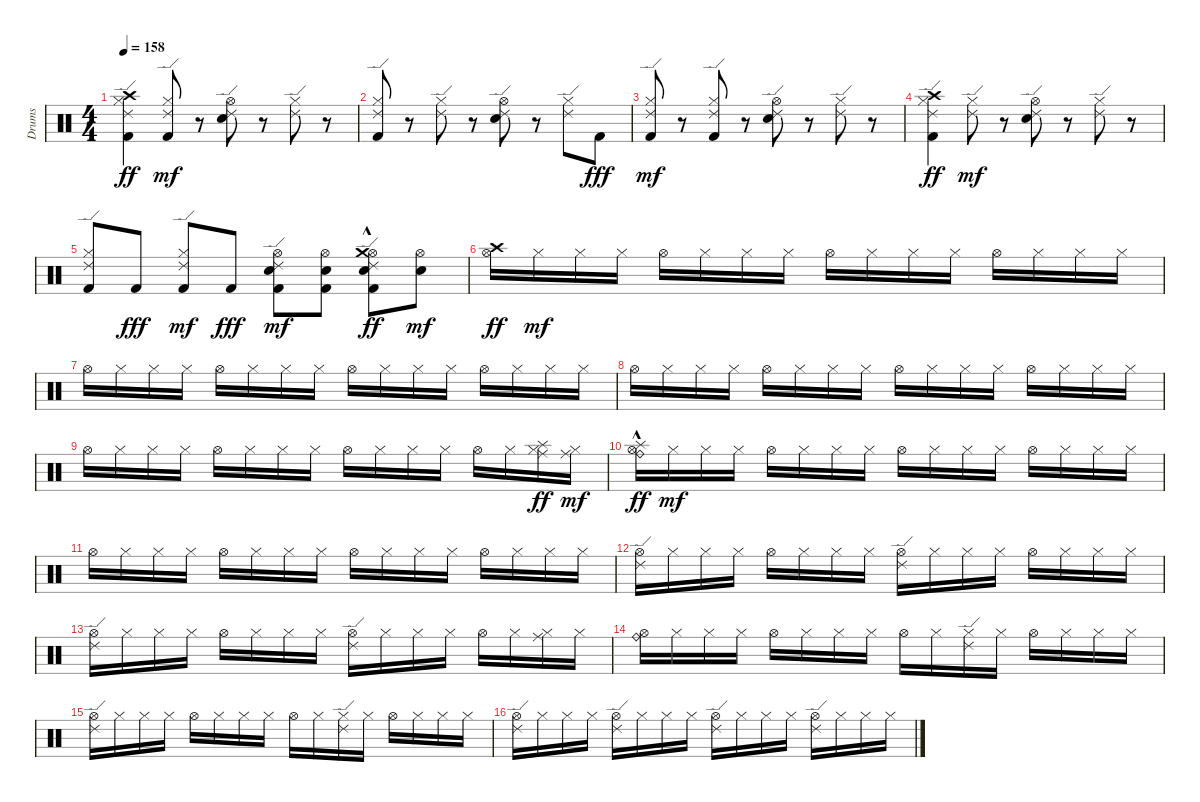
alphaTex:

\track ("Drums" "Drums") {instrument percussion}
\staff {score}
\articulation defaults
\ts (4 4)
\tempo 158
\clef neutral
\ks c
("Kick (hit) 2" "Hi-Hat (closed)" "Ride (edge) 2" "Crash high (hit)").4{dy ff} ("Kick (hit) 2" "Hi-Hat (closed)" "Ride (edge) 2").8{dy mf} r.8 ("Snare (hit) 2" "Hi-Hat (open)" "Ride (edge) 2").8 r.8 ("Hi-Hat (closed)" "Ride (edge) 2").8 r.8 |
("Kick (hit) 2" "Hi-Hat (closed)" "Ride (edge) 2").8 r.8 ("Hi-Hat (closed)" "Ride (edge) 2").8 r.8 ("Snare (hit) 2" "Hi-Hat (open)" "Ride (edge) 2").8 r.8 ("Hi-Hat (closed)" "Ride (edge) 2").8 "Kick (hit) 2".8{dy fff} |
("Kick (hit) 2" "Hi-Hat (closed)" "Ride (edge) 2").8{dy mf} r.8 ("Kick (hit) 2" "Hi-Hat (closed)" "Ride (edge) 2").8 r.8 ("Snare (hit) 2" "Hi-Hat (open)" "Ride (edge) 2").8 r.8 ("Hi-Hat (closed)" "Ride (edge) 2").8 r.8 |
("Kick (hit) 2" "Hi-Hat (closed)" "Ride (edge) 2" "Crash high (hit)").4{dy ff} ("Hi-Hat (closed)" "Ride (edge) 2").8{dy mf} r.8 ("Snare (hit) 2" "Hi-Hat (open)" "Ride (edge) 2").8 r.8 ("Hi-Hat (closed)" "Ride (edge) 2").8 r.8 |
("Kick (hit) 2" "Hi-Hat (closed)" "Ride (edge) 2").8 "Kick (hit) 2".8{dy fff} ("Kick (hit) 2" "Hi-Hat (closed)" "Ride (edge) 2").8{dy mf} "Kick (hit) 2".8{dy fff} ("Kick (hit) 2" "Snare (hit) 2" "Hi-Hat (open)" "Ride (edge) 2").8{dy mf} ("Kick (hit) 2" "Snare (hit) 2" "Hi-Hat (open)").8 ("Kick (hit) 2" "Snare (hit) 2" "Hi-Hat (open)" "Ride (edge) 2" "Crash medium (hit)"{hac}).8{dy ff} ("Snare (hit) 2" "Hi-Hat (open)").8{dy mf} |
("Hi-Hat (open)" "Crash high (hit)").16{dy ff} "Hi-Hat (closed)".16{dy mf} "Hi-Hat (closed)".16 "Hi-Hat (closed)".16 "Hi-Hat (open)".16 "Hi-Hat (closed)".16 "Hi-Hat (closed)".16 "Hi-Hat (closed)".16 "Hi-Hat (open)".16 "Hi-Hat (closed)".16 "Hi-Hat (closed)".16 "Hi-Hat (closed)".16 "Hi-Hat (open)".16 "Hi-Hat (closed)".16 "Hi-Hat (closed)".16 "Hi-Hat (closed)".16 |
"Hi-Hat (open)".16 "Hi-Hat (closed)".16 "Hi-Hat (closed)".16 "Hi-Hat (closed)".16 "Hi-Hat (open)".16 "Hi-Hat (closed)".16 "Hi-Hat (closed)".16 "Hi-Hat (closed)".16 "Hi-Hat (open)".16 "Hi-Hat (closed)".16 "Hi-Hat (closed)".16 "Hi-Hat (closed)".16 "Hi-Hat (open)".16 "Hi-Hat (closed)".16 "Hi-Hat (closed)".16 "Hi-Hat (closed)".16 |
"Hi-Hat (open)".16 "Hi-Hat (closed)".16 "Hi-Hat (closed)".16 "Hi-Hat (closed)".16 "Hi-Hat (open)".16 "Hi-Hat (closed)".16 "Hi-Hat (closed)".16 "Hi-Hat (closed)".16 "Hi-Hat (open)".16 "Hi-Hat (closed)".16 "Hi-Hat (closed)".16 "Hi-Hat (closed)".16 "Hi-Hat (open)".16 "Hi-Hat (closed)".16 "Hi-Hat (closed)".16 "Hi-Hat (closed)".16 |
"Hi-Hat (open)".16 "Hi-Hat (closed)".16 "Hi-Hat (closed)".16 "Hi-Hat (closed)".16 "Hi-Hat (open)".16 "Hi-Hat (closed)".16 "Hi-Hat (closed)".16 "Hi-Hat (closed)".16 "Hi-Hat (open)".16 "Hi-Hat (closed)".16 "Hi-Hat (closed)".16 "Hi-Hat (closed)".16 "Hi-Hat (open)".16 "Hi-Hat (closed)".16 ("Hi-Hat (closed)" "Ride (middle)" "Splash (hit)").16{dy ff} ("Hi-Hat (closed)" "Ride (middle)").16{dy mf} |
("Hi-Hat (open)" "Ride (bell)" "Splash (hit)"{hac}).16{dy ff} "Hi-Hat (closed)".16{dy mf} "Hi-Hat (closed)".16 "Hi-Hat (closed)".16 "Hi-Hat (open)".16 "Hi-Hat (closed)".16 "Hi-Hat (closed)".16 "Hi-Hat (closed)".16 "Hi-Hat (open)".16 "Hi-Hat (closed)".16 "Hi-Hat (closed)".16 "Hi-Hat (closed)".16 "Hi-Hat (open)".16 "Hi-Hat (closed)".16 "Hi-Hat (closed)".16 "Hi-Hat (closed)".16 |
"Hi-Hat (open)".16 "Hi-Hat (closed)".16 "Hi-Hat (closed)".16 "Hi-Hat (closed)".16 "Hi-Hat (open)".16 "Hi-Hat (closed)".16 "Hi-Hat (closed)".16 "Hi-Hat (closed)".16 "Hi-Hat (open)".16 "Hi-Hat (closed)".16 "Hi-Hat (closed)".16 "Hi-Hat (closed)".16 "Hi-Hat (open)".16 "Hi-Hat (closed)".16 "Hi-Hat (closed)".16 "Hi-Hat (closed)".16 |
("Hi-Hat (open)" "Ride (edge) 2").16 "Hi-Hat (closed)".16 "Hi-Hat (closed)".16 "Hi-Hat (closed)".16 "Hi-Hat (open)".16 "Hi-Hat (closed)".16 "Hi-Hat (closed)".16 "Hi-Hat (closed)".16 ("Hi-Hat (open)" "Ride (edge) 2").16 "Hi-Hat (closed)".16 "Hi-Hat (closed)".16 "Hi-Hat (closed)".16 "Hi-Hat (open)".16 "Hi-Hat (closed)".16 "Hi-Hat (closed)".16 "Hi-Hat (closed)".16 |
("Hi-Hat (open)" "Ride (edge) 2").16 "Hi-Hat (closed)".16 "Hi-Hat (closed)".16 "Hi-Hat (closed)".16 "Hi-Hat (open)".16 "Hi-Hat (closed)".16 "Hi-Hat (closed)".16 "Hi-Hat (closed)".16 ("Hi-Hat (open)" "Ride (edge) 2").16 "Hi-Hat (closed)".16 "Hi-Hat (closed)".16 "Hi-Hat (closed)".16 "Hi-Hat (open)".16 "Hi-Hat (closed)".16 ("Hi-Hat (closed)" "Ride (middle)").16 "Hi-Hat (closed)".16 |
("Hi-Hat (open)" "Ride (bell)").16 "Hi-Hat (closed)".16 "Hi-Hat (closed)".16 "Hi-Hat (closed)".16 "Hi-Hat (open)".16 "Hi-Hat (closed)".16 "Hi-Hat (closed)".16 "Hi-Hat (closed)".16 "Hi-Hat (open)".16 "Hi-Hat (closed)".16 ("Hi-Hat (closed)" "Ride (edge) 2").16 "Hi-Hat (closed)".16 "Hi-Hat (open)".16 "Hi-Hat (closed)".16 "Hi-Hat (closed)".16 "Hi-Hat (closed)".16 |
("Hi-Hat (open)" "Ride (edge) 2").16 "Hi-Hat (closed)".16 "Hi-Hat (closed)".16 "Hi-Hat (closed)".16 "Hi-Hat (open)".16 "Hi-Hat (closed)".16 "Hi-Hat (closed)".16 "Hi-Hat (closed)".16 "Hi-Hat (open)".16 "Hi-Hat (closed)".16 ("Hi-Hat (closed)" "Ride (edge) 2").16 "Hi-Hat (closed)".16 "Hi-Hat (open)".16 "Hi-Hat (closed)".16 "Hi-Hat (closed)".16 "Hi-Hat (closed)".16 |
("Hi-Hat (open)" "Ride (edge) 2").16 "Hi-Hat (closed)".16 "Hi-Hat (closed)".16 "Hi-Hat (closed)".16 ("Hi-Hat (open)" "Ride (edge) 2").16 "Hi-Hat (closed)".16 "Hi-Hat (closed)".16 "Hi-Hat (closed)".16 ("Hi-Hat (open)" "Ride (edge) 2").16 "Hi-Hat (closed)".16 "Hi-Hat (closed)".16 "Hi-Hat (closed)".16 ("Hi-Hat (open)" "Ride (edge) 2").16 "Hi-Hat (closed)".16 "Hi-Hat (closed)".16 "Hi-Hat (closed)".16
